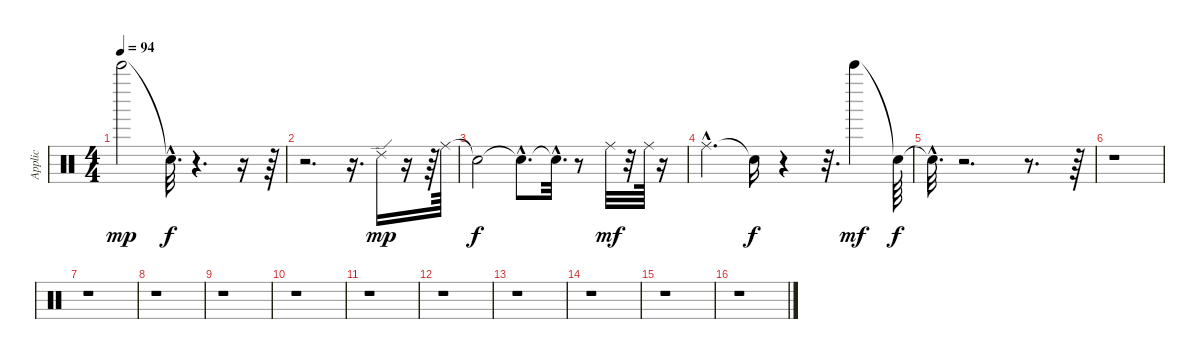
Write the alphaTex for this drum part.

\track ("Applic" "Applic") {instrument percussion}
\staff {score}
\articulation defaults
\ts (4 4)
\tempo 94
\clef neutral
\ks c "Bell Tree (hit)".2{dy mp} "Snare (hit)"{hac t}.32{d dy f}
r.4{d} r.16 r.64 |
r.2{d} r.16{d} "Ride (edge) 2".16{dy mp} r.16 r.64 "Ride (middle)".64 |
"Snare (hit)"{t}.2{dy f} "Snare (hit)"{hac t}.8{d} "Snare (hit)"{hac t}.32{d} r.8 "Ride (middle)".32{dy mf} r.32 "Ride (middle)".64 r.16 |
"Ride (middle)"{hac}.4{d} "Snare (hit)"{t}.16{dy f} r.4 r.32{d} "Bell Tree (hit)".4{dy mf} "Snare (hit)"{t}.64{dy f} |
"Snare (hit)"{hac t}.32{d} r.2{d} r.8{d} r.64 |
r.1 |
r.1 |
r.1 |
r.1 |
r.1 |
r.1 |
r.1 |
r.1 |
r.1 |
r.1 |
r.1
